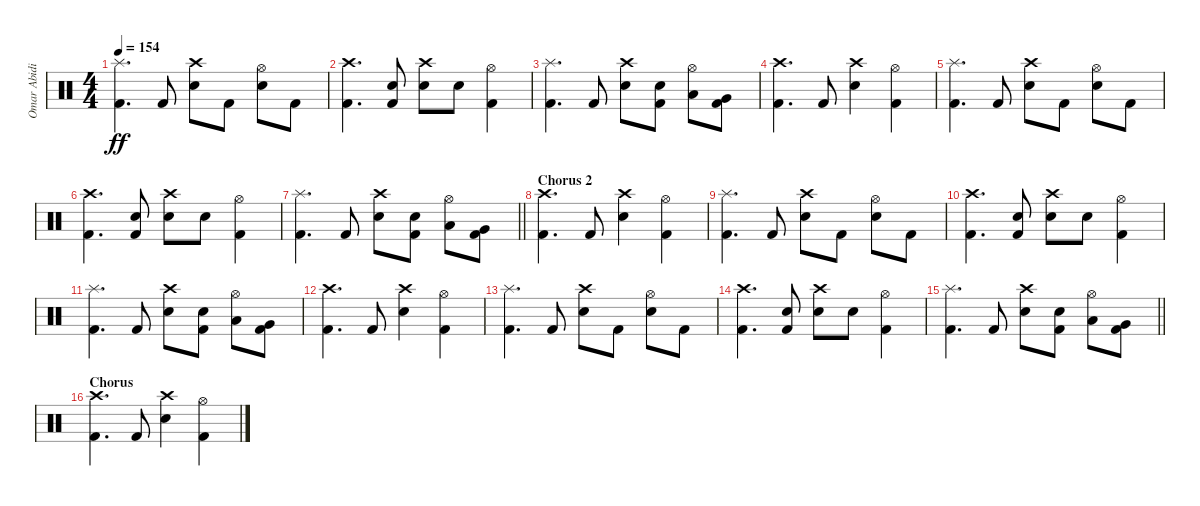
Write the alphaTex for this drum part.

\track ("Omar Abidi" "Omar Abidi") {instrument percussion}
\staff {score}
\articulation defaults
\ts (4 4)
\tempo 154
\clef neutral
\ks c
("Splash (hit)" "Kick (hit) 2").4{d dy ff} "Kick (hit) 2".8 ("Crash high (hit)" "Electric Snare (hit)").8 "Kick (hit) 2".8 ("Hi-Hat (open)" "Electric Snare (hit)").8 "Kick (hit) 2".8 |
("Crash high (hit)" "Kick (hit) 2").4{d} ("Electric Snare (hit)" "Kick (hit) 2").8 ("Crash high (hit)" "Electric Snare (hit)").8 "Electric Snare (hit)".8 ("Hi-Hat (open)" "Kick (hit) 2").4 |
("Splash (hit)" "Kick (hit) 2").4{d} "Kick (hit) 2".8 ("Crash high (hit)" "Electric Snare (hit)").8 ("Electric Snare (hit)" "Kick (hit) 2").8 ("Hi-Hat (open)" "Low Tom (hit)").8 ("Very Low Tom (hit)" "Kick (hit) 2").8 |
("Crash high (hit)" "Kick (hit) 2").4{d} "Kick (hit) 2".8 ("Crash high (hit)" "Electric Snare (hit)").4 ("Hi-Hat (open)" "Kick (hit) 2").4 |
("Splash (hit)" "Kick (hit) 2").4{d} "Kick (hit) 2".8 ("Crash high (hit)" "Electric Snare (hit)").8 "Kick (hit) 2".8 ("Hi-Hat (open)" "Electric Snare (hit)").8 "Kick (hit) 2".8 |
("Crash high (hit)" "Kick (hit) 2").4{d} ("Electric Snare (hit)" "Kick (hit) 2").8 ("Crash high (hit)" "Electric Snare (hit)").8 "Electric Snare (hit)".8 ("Hi-Hat (open)" "Kick (hit) 2").4 |
\barLineRight lightlight
("Splash (hit)" "Kick (hit) 2").4{d} "Kick (hit) 2".8 ("Crash high (hit)" "Electric Snare (hit)").8 ("Electric Snare (hit)" "Kick (hit) 2").8 ("Hi-Hat (open)" "Low Tom (hit)").8 ("Very Low Tom (hit)" "Kick (hit) 2").8 |
\section ("" "Chorus 2")
("Crash high (hit)" "Kick (hit) 2").4{d} "Kick (hit) 2".8 ("Crash high (hit)" "Electric Snare (hit)").4 ("Hi-Hat (open)" "Kick (hit) 2").4 |
("Splash (hit)" "Kick (hit) 2").4{d} "Kick (hit) 2".8 ("Crash high (hit)" "Electric Snare (hit)").8 "Kick (hit) 2".8 ("Hi-Hat (open)" "Electric Snare (hit)").8 "Kick (hit) 2".8 |
("Crash high (hit)" "Kick (hit) 2").4{d} ("Electric Snare (hit)" "Kick (hit) 2").8 ("Crash high (hit)" "Electric Snare (hit)").8 "Electric Snare (hit)".8 ("Hi-Hat (open)" "Kick (hit) 2").4 |
("Splash (hit)" "Kick (hit) 2").4{d} "Kick (hit) 2".8 ("Crash high (hit)" "Electric Snare (hit)").8 ("Electric Snare (hit)" "Kick (hit) 2").8 ("Hi-Hat (open)" "Low Tom (hit)").8 ("Very Low Tom (hit)" "Kick (hit) 2").8 |
("Crash high (hit)" "Kick (hit) 2").4{d} "Kick (hit) 2".8 ("Crash high (hit)" "Electric Snare (hit)").4 ("Hi-Hat (open)" "Kick (hit) 2").4 |
("Splash (hit)" "Kick (hit) 2").4{d} "Kick (hit) 2".8 ("Crash high (hit)" "Electric Snare (hit)").8 "Kick (hit) 2".8 ("Hi-Hat (open)" "Electric Snare (hit)").8 "Kick (hit) 2".8 |
("Crash high (hit)" "Kick (hit) 2").4{d} ("Electric Snare (hit)" "Kick (hit) 2").8 ("Crash high (hit)" "Electric Snare (hit)").8 "Electric Snare (hit)".8 ("Hi-Hat (open)" "Kick (hit) 2").4 |
\barLineRight lightlight
("Splash (hit)" "Kick (hit) 2").4{d} "Kick (hit) 2".8 ("Crash high (hit)" "Electric Snare (hit)").8 ("Electric Snare (hit)" "Kick (hit) 2").8 ("Hi-Hat (open)" "Low Tom (hit)").8 ("Very Low Tom (hit)" "Kick (hit) 2").8 |
\section ("" "Chorus")
("Crash high (hit)" "Kick (hit) 2").4{d} "Kick (hit) 2".8 ("Crash high (hit)" "Electric Snare (hit)").4 ("Hi-Hat (open)" "Kick (hit) 2").4
